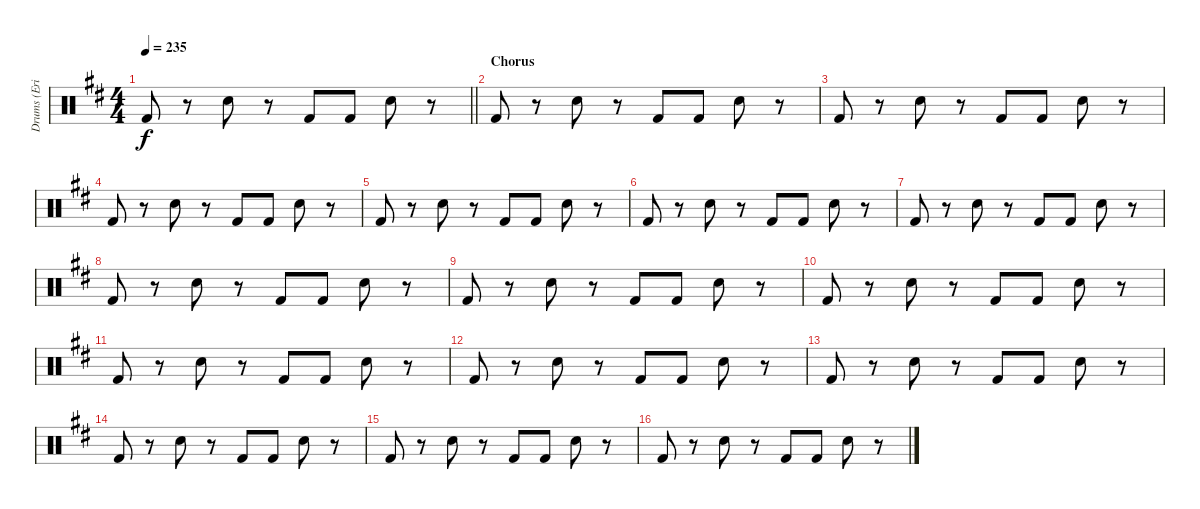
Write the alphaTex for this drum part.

\track ("Drums (Eric Carr)" "Drums (Eri") {instrument percussion}
\staff {score}
\articulation defaults
\ts (4 4)
\tempo 235
\clef neutral
\barLineRight lightlight
\ks d "Kick (hit) 2".8{dy f}
r.8 "Snare (hit) 2".8 r.8 "Kick (hit) 2".8 "Kick (hit) 2".8 "Snare (hit) 2".8 r.8 |
\section ("" "Chorus")
"Kick (hit) 2".8 r.8 "Snare (hit) 2".8 r.8 "Kick (hit) 2".8 "Kick (hit) 2".8 "Snare (hit) 2".8 r.8 |
"Kick (hit) 2".8 r.8 "Snare (hit) 2".8 r.8 "Kick (hit) 2".8 "Kick (hit) 2".8 "Snare (hit) 2".8 r.8 |
"Kick (hit) 2".8 r.8 "Snare (hit) 2".8 r.8 "Kick (hit) 2".8 "Kick (hit) 2".8 "Snare (hit) 2".8 r.8 |
"Kick (hit) 2".8 r.8 "Snare (hit) 2".8 r.8 "Kick (hit) 2".8 "Kick (hit) 2".8 "Snare (hit) 2".8 r.8 |
"Kick (hit) 2".8 r.8 "Snare (hit) 2".8 r.8 "Kick (hit) 2".8 "Kick (hit) 2".8 "Snare (hit) 2".8 r.8 |
"Kick (hit) 2".8 r.8 "Snare (hit) 2".8 r.8 "Kick (hit) 2".8 "Kick (hit) 2".8 "Snare (hit) 2".8 r.8 |
"Kick (hit) 2".8 r.8 "Snare (hit) 2".8 r.8 "Kick (hit) 2".8 "Kick (hit) 2".8 "Snare (hit) 2".8 r.8 |
"Kick (hit) 2".8 r.8 "Snare (hit) 2".8 r.8 "Kick (hit) 2".8 "Kick (hit) 2".8 "Snare (hit) 2".8 r.8 |
"Kick (hit) 2".8 r.8 "Snare (hit) 2".8 r.8 "Kick (hit) 2".8 "Kick (hit) 2".8 "Snare (hit) 2".8 r.8 |
"Kick (hit) 2".8 r.8 "Snare (hit) 2".8 r.8 "Kick (hit) 2".8 "Kick (hit) 2".8 "Snare (hit) 2".8 r.8 |
"Kick (hit) 2".8 r.8 "Snare (hit) 2".8 r.8 "Kick (hit) 2".8 "Kick (hit) 2".8 "Snare (hit) 2".8 r.8 |
"Kick (hit) 2".8 r.8 "Snare (hit) 2".8 r.8 "Kick (hit) 2".8 "Kick (hit) 2".8 "Snare (hit) 2".8 r.8 |
"Kick (hit) 2".8 r.8 "Snare (hit) 2".8 r.8 "Kick (hit) 2".8 "Kick (hit) 2".8 "Snare (hit) 2".8 r.8 |
"Kick (hit) 2".8 r.8 "Snare (hit) 2".8 r.8 "Kick (hit) 2".8 "Kick (hit) 2".8 "Snare (hit) 2".8 r.8 |
"Kick (hit) 2".8 r.8 "Snare (hit) 2".8 r.8 "Kick (hit) 2".8 "Kick (hit) 2".8 "Snare (hit) 2".8 r.8
